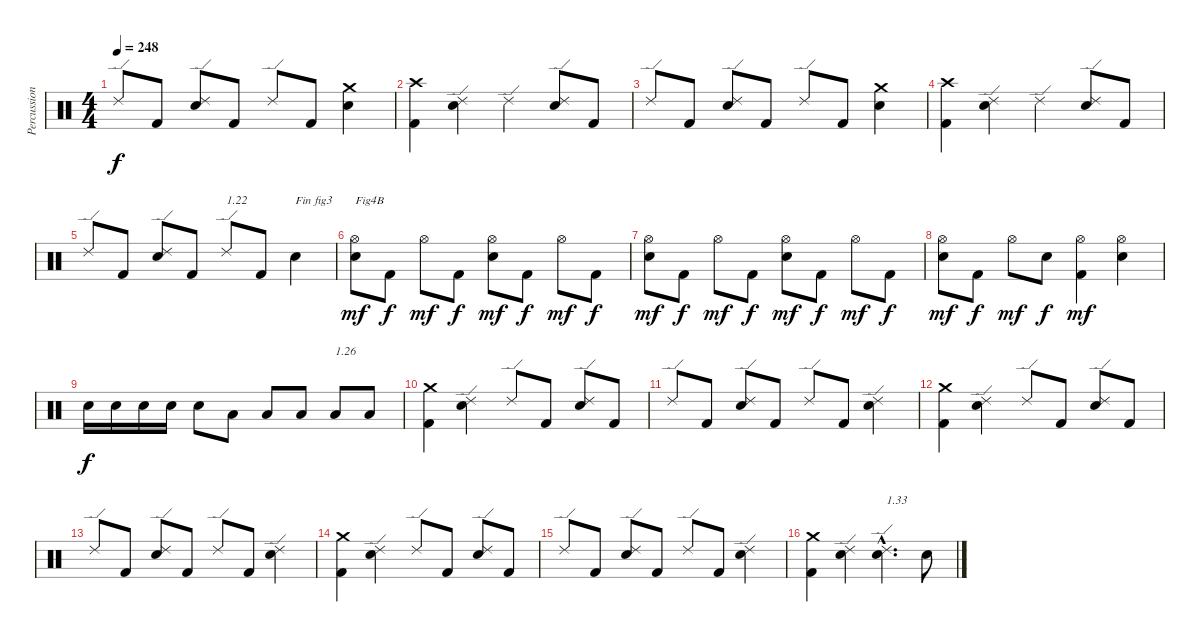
\track ("Percussions" "Percussion") {instrument percussion}
\staff {score}
\articulation defaults
\ts (4 4)
\tempo 248
\clef neutral
\ks c "Ride (edge) 2".8{dy f} "Kick (hit) 2".8
("Electric Snare (hit)" "Ride (edge) 2").8 "Kick (hit) 2".8 "Ride (edge) 2".8 "Kick (hit) 2".8 ("Electric Snare (hit)" "Crash medium (hit)").4 |
("Kick (hit) 2" "Crash high (hit)").4 ("Electric Snare (hit)" "Ride (edge) 2").4 "Ride (edge) 2".4 ("Electric Snare (hit)" "Ride (edge) 2").8 "Kick (hit) 2".8 |
"Ride (edge) 2".8 "Kick (hit) 2".8 ("Electric Snare (hit)" "Ride (edge) 2").8 "Kick (hit) 2".8 "Ride (edge) 2".8 "Kick (hit) 2".8 ("Electric Snare (hit)" "Crash medium (hit)").4 |
("Kick (hit) 2" "Crash high (hit)").4 ("Electric Snare (hit)" "Ride (edge) 2").4 "Ride (edge) 2".4 ("Electric Snare (hit)" "Ride (edge) 2").8 "Kick (hit) 2".8 |
"Ride (edge) 2".8 "Kick (hit) 2".8 ("Electric Snare (hit)" "Ride (edge) 2").8 "Kick (hit) 2".8 "Ride (edge) 2".8{txt "1.22"} "Kick (hit) 2".8 "Electric Snare (hit)".4{txt "Fin fig3"} |
("Electric Snare (hit)" "Hi-Hat (open)").8{txt "Fig4B" dy mf} "Kick (hit) 2".8{dy f} "Hi-Hat (open)".8{dy mf} "Kick (hit) 2".8{dy f} ("Electric Snare (hit)" "Hi-Hat (open)").8{dy mf} "Kick (hit) 2".8{dy f} "Hi-Hat (open)".8{dy mf} "Kick (hit) 2".8{dy f} |
("Electric Snare (hit)" "Hi-Hat (open)").8{dy mf} "Kick (hit) 2".8{dy f} "Hi-Hat (open)".8{dy mf} "Kick (hit) 2".8{dy f} ("Electric Snare (hit)" "Hi-Hat (open)").8{dy mf} "Kick (hit) 2".8{dy f} "Hi-Hat (open)".8{dy mf} "Kick (hit) 2".8{dy f} |
("Electric Snare (hit)" "Hi-Hat (open)").8{dy mf} "Kick (hit) 2".8{dy f} "Hi-Hat (open)".8{dy mf} "Electric Snare (hit)".8{dy f} ("Kick (hit) 2" "Hi-Hat (open)").4{dy mf} ("Electric Snare (hit)" "Hi-Hat (open)").4 |
"Electric Snare (hit)".16{dy f} "Electric Snare (hit)".16 "Electric Snare (hit)".16 "Electric Snare (hit)".16 "Electric Snare (hit)".8 "Low Floor Tom (hit)".8 "Low Floor Tom (hit)".8 "Low Floor Tom (hit)".8 "Low Floor Tom (hit)".8{txt "1.26"} "Low Floor Tom (hit)".8 |
("Kick (hit) 2" "Crash medium (hit)").4 ("Electric Snare (hit)" "Ride (edge) 2").4 "Ride (edge) 2".8 "Kick (hit) 2".8 ("Electric Snare (hit)" "Ride (edge) 2").8 "Kick (hit) 2".8 |
"Ride (edge) 2".8 "Kick (hit) 2".8 ("Electric Snare (hit)" "Ride (edge) 2").8 "Kick (hit) 2".8 "Ride (edge) 2".8 "Kick (hit) 2".8 ("Electric Snare (hit)" "Ride (edge) 2").4 |
("Kick (hit) 2" "Crash medium (hit)").4 ("Electric Snare (hit)" "Ride (edge) 2").4 "Ride (edge) 2".8 "Kick (hit) 2".8 ("Electric Snare (hit)" "Ride (edge) 2").8 "Kick (hit) 2".8 |
"Ride (edge) 2".8 "Kick (hit) 2".8 ("Electric Snare (hit)" "Ride (edge) 2").8 "Kick (hit) 2".8 "Ride (edge) 2".8 "Kick (hit) 2".8 ("Electric Snare (hit)" "Ride (edge) 2").4 |
("Kick (hit) 2" "Crash medium (hit)").4 ("Electric Snare (hit)" "Ride (edge) 2").4 "Ride (edge) 2".8 "Kick (hit) 2".8 ("Electric Snare (hit)" "Ride (edge) 2").8 "Kick (hit) 2".8 |
"Ride (edge) 2".8 "Kick (hit) 2".8 ("Electric Snare (hit)" "Ride (edge) 2").8 "Kick (hit) 2".8 "Ride (edge) 2".8 "Kick (hit) 2".8 ("Electric Snare (hit)" "Ride (edge) 2").4 |
("Kick (hit) 2" "Crash medium (hit)").4 ("Electric Snare (hit)" "Ride (edge) 2").4 ("Electric Snare (hit)"{hac} "Ride (edge) 2"{hac}).4{d txt "1.33"} "Electric Snare (hit)".8
